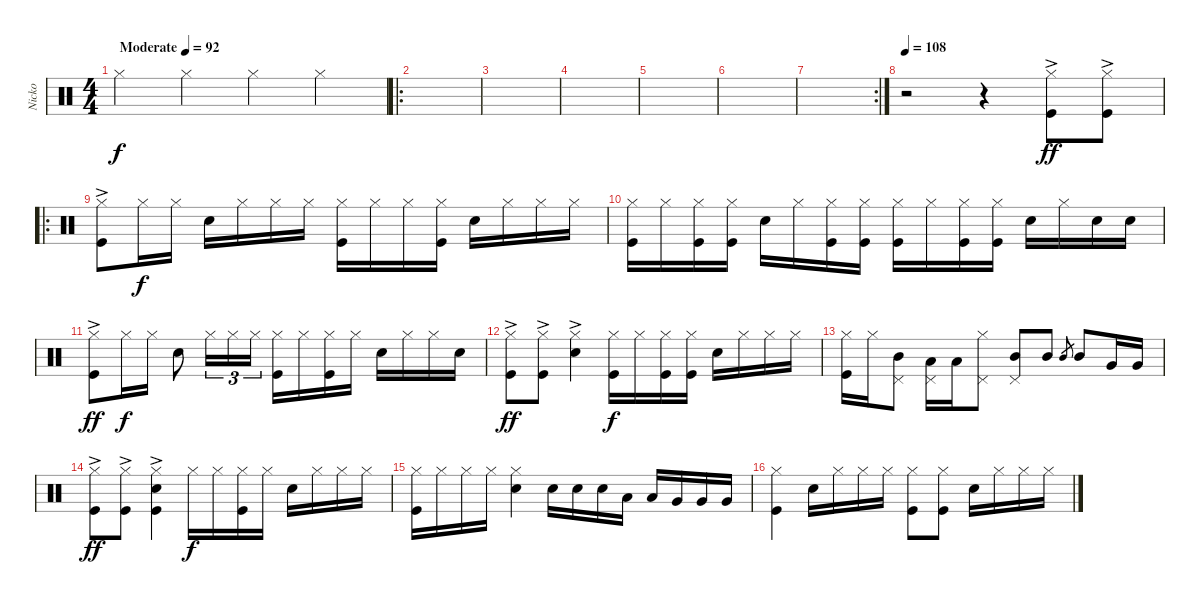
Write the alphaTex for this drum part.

\track ("Nicko" "Nicko") {instrument percussion}
\staff {score}
\articulation defaults
\ts (4 4)
\tempo (92 "Moderate")
\clef neutral
\ks c "Hi-Hat (closed)".4{dy f} "Hi-Hat (closed)".4 "Hi-Hat (closed)".4 "Hi-Hat (closed)".4
|
\ro
|
|
|
|
|
\rc 2
|
\tempo 108
r.2 r.4 ("Hi-Hat (closed)"{ac} "Kick (hit)").8{dy ff} ("Hi-Hat (closed)"{ac} "Kick (hit)").8 |
\ro
("Hi-Hat (closed)"{ac} "Kick (hit)").8 "Hi-Hat (closed)".16{dy f} "Hi-Hat (closed)".16 "Snare (hit) 2".16 "Hi-Hat (closed)".16 "Hi-Hat (closed)".16 "Hi-Hat (closed)".16 ("Hi-Hat (closed)" "Kick (hit)").16 "Hi-Hat (closed)".16 "Hi-Hat (closed)".16 ("Hi-Hat (closed)" "Kick (hit)").16 "Snare (hit) 2".16 "Hi-Hat (closed)".16 "Hi-Hat (closed)".16 "Hi-Hat (closed)".16 |
("Hi-Hat (closed)" "Kick (hit)").16 "Hi-Hat (closed)".16 ("Hi-Hat (closed)" "Kick (hit)").16 ("Hi-Hat (closed)" "Kick (hit)").16 "Snare (hit) 2".16 "Hi-Hat (closed)".16 ("Hi-Hat (closed)" "Kick (hit)").16 ("Hi-Hat (closed)" "Kick (hit)").16 ("Hi-Hat (closed)" "Kick (hit)").16 "Hi-Hat (closed)".16 ("Hi-Hat (closed)" "Kick (hit)").16 ("Hi-Hat (closed)" "Kick (hit)").16 "Snare (hit) 2".16 "Hi-Hat (closed)".16 "Snare (hit) 2".16 "Snare (hit) 2".16 |
("Hi-Hat (closed)"{ac} "Kick (hit)").8{dy ff} "Hi-Hat (closed)".16{dy f} "Hi-Hat (closed)".16 "Snare (hit) 2".8 "Hi-Hat (closed)".16{tu (3 2)} "Hi-Hat (closed)".16{tu (3 2)} "Hi-Hat (closed)".16{tu (3 2)} ("Hi-Hat (closed)" "Kick (hit)").16 "Hi-Hat (closed)".16 ("Hi-Hat (closed)" "Kick (hit)").16 "Hi-Hat (closed)".16 "Snare (hit) 2".16 "Hi-Hat (closed)".16 "Hi-Hat (closed)".16 "Snare (hit) 2".16 |
("Hi-Hat (closed)"{ac} "Kick (hit)").8{dy ff} ("Hi-Hat (closed)"{ac} "Kick (hit)").8 ("Hi-Hat (closed)" "Snare (hit) 2"{ac}).4 ("Hi-Hat (closed)" "Kick (hit)").16{dy f} "Hi-Hat (closed)".16 ("Hi-Hat (closed)" "Kick (hit)").16 ("Hi-Hat (closed)" "Kick (hit)").16 "Snare (hit) 2".16 "Hi-Hat (closed)".16 "Hi-Hat (closed)".16 "Hi-Hat (closed)".16 |
("Hi-Hat (closed)" "Kick (hit)").16 "Hi-Hat (closed)".16 ("Mid Tom (hit)" "Pedal Hi-Hat (hit)").8 ("Low Tom (hit)" "Pedal Hi-Hat (hit)").16 "Low Tom (hit)".16 ("Hi-Hat (closed)" "Pedal Hi-Hat (hit)").8 ("Mid Tom (hit)" "Pedal Hi-Hat (hit)").8 "Mid Tom (hit)".8 "Mid Tom (hit)".8{gr} "Mid Tom (hit)".8 "Very Low Tom (hit)".16 "Very Low Tom (hit)".16 |
("Hi-Hat (closed)"{ac} "Kick (hit)").8{dy ff} ("Hi-Hat (closed)"{ac} "Kick (hit)").8 ("Hi-Hat (closed)" "Snare (hit) 2"{ac} "Kick (hit)").4 "Hi-Hat (closed)".16{dy f} "Hi-Hat (closed)".16 ("Hi-Hat (closed)" "Kick (hit)").16 "Hi-Hat (closed)".16 "Snare (hit) 2".16 "Hi-Hat (closed)".16 "Hi-Hat (closed)".16 "Hi-Hat (closed)".16 |
("Hi-Hat (closed)" "Kick (hit)").16 "Hi-Hat (closed)".16 "Hi-Hat (closed)".16 "Hi-Hat (closed)".16 ("Hi-Hat (closed)" "Snare (hit) 2").4 "Snare (hit) 2".16 "Snare (hit) 2".16 "Snare (hit) 2".16 "Low Tom (hit)".16 "Low Tom (hit)".16 "Very Low Tom (hit)".16 "Very Low Tom (hit)".16 "Very Low Tom (hit)".16 |
("Hi-Hat (closed)" "Kick (hit)").4 "Snare (hit) 2".16 "Hi-Hat (closed)".16 "Hi-Hat (closed)".16 "Hi-Hat (closed)".16 ("Hi-Hat (closed)" "Kick (hit)").8 ("Hi-Hat (closed)" "Kick (hit)").8 "Snare (hit) 2".16 "Hi-Hat (closed)".16 "Hi-Hat (closed)".16 "Hi-Hat (closed)".16
